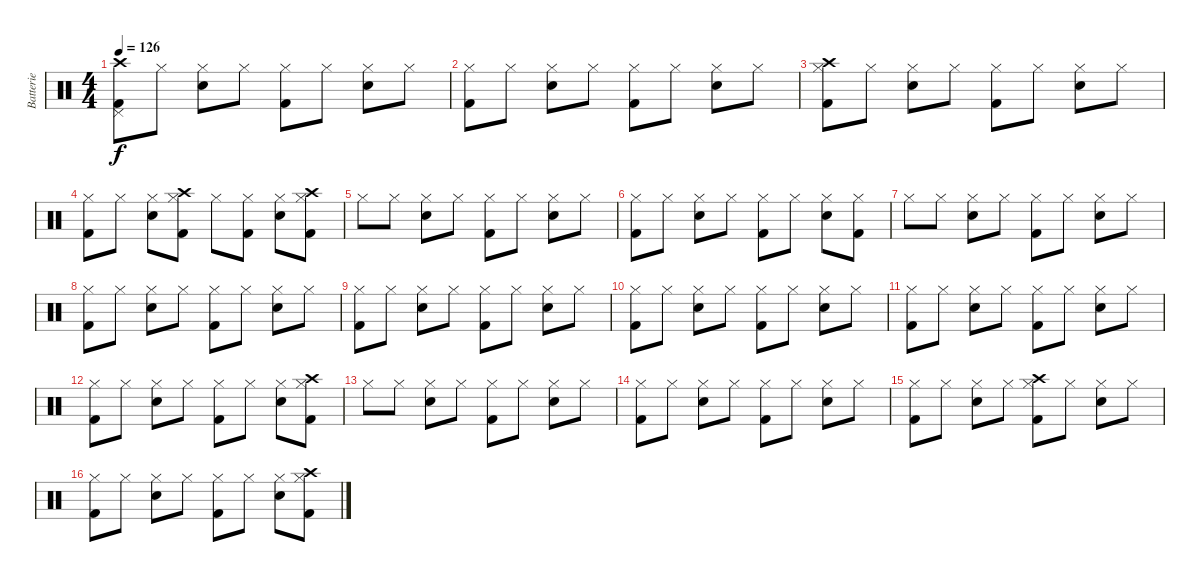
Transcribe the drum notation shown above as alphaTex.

\track ("Batterie" "Batterie") {instrument percussion}
\staff {score}
\articulation defaults
\ts (4 4)
\tempo 126
\clef neutral
\ks c
("Pedal Hi-Hat (hit)" "Crash high (hit)" "Kick (hit) 2").8{dy f} "Hi-Hat (closed)".8 ("Hi-Hat (closed)" "Snare (hit) 2").8 "Hi-Hat (closed)".8 ("Hi-Hat (closed)" "Kick (hit) 2").8 "Hi-Hat (closed)".8 ("Hi-Hat (closed)" "Snare (hit) 2").8 "Hi-Hat (closed)".8 |
("Hi-Hat (closed)" "Kick (hit) 2").8 "Hi-Hat (closed)".8 ("Hi-Hat (closed)" "Snare (hit) 2").8 "Hi-Hat (closed)".8 ("Hi-Hat (closed)" "Kick (hit) 2").8 "Hi-Hat (closed)".8 ("Hi-Hat (closed)" "Snare (hit) 2").8 "Hi-Hat (closed)".8 |
("Hi-Hat (closed)" "Crash high (hit)" "Kick (hit) 2").8 "Hi-Hat (closed)".8 ("Hi-Hat (closed)" "Snare (hit) 2").8 "Hi-Hat (closed)".8 ("Hi-Hat (closed)" "Kick (hit) 2").8 "Hi-Hat (closed)".8 ("Hi-Hat (closed)" "Snare (hit) 2").8 "Hi-Hat (closed)".8 |
("Hi-Hat (closed)" "Kick (hit) 2").8 "Hi-Hat (closed)".8 ("Hi-Hat (closed)" "Snare (hit) 2").8 ("Hi-Hat (closed)" "Crash high (hit)" "Kick (hit) 2").8 "Hi-Hat (closed)".8 ("Hi-Hat (closed)" "Kick (hit) 2").8 ("Hi-Hat (closed)" "Snare (hit) 2").8 ("Hi-Hat (closed)" "Crash high (hit)" "Kick (hit) 2").8 |
"Hi-Hat (closed)".8 "Hi-Hat (closed)".8 ("Hi-Hat (closed)" "Snare (hit) 2").8 "Hi-Hat (closed)".8 ("Hi-Hat (closed)" "Kick (hit) 2").8 "Hi-Hat (closed)".8 ("Hi-Hat (closed)" "Snare (hit) 2").8 "Hi-Hat (closed)".8 |
("Hi-Hat (closed)" "Kick (hit) 2").8 "Hi-Hat (closed)".8 ("Hi-Hat (closed)" "Snare (hit) 2").8 "Hi-Hat (closed)".8 ("Hi-Hat (closed)" "Kick (hit) 2").8 "Hi-Hat (closed)".8 ("Hi-Hat (closed)" "Snare (hit) 2").8 ("Hi-Hat (closed)" "Kick (hit) 2").8 |
"Hi-Hat (closed)".8 "Hi-Hat (closed)".8 ("Hi-Hat (closed)" "Snare (hit) 2").8 "Hi-Hat (closed)".8 ("Hi-Hat (closed)" "Kick (hit) 2").8 "Hi-Hat (closed)".8 ("Hi-Hat (closed)" "Snare (hit) 2").8 "Hi-Hat (closed)".8 |
("Hi-Hat (closed)" "Kick (hit) 2").8 "Hi-Hat (closed)".8 ("Hi-Hat (closed)" "Snare (hit) 2").8 "Hi-Hat (closed)".8 ("Hi-Hat (closed)" "Kick (hit) 2").8 "Hi-Hat (closed)".8 ("Hi-Hat (closed)" "Snare (hit) 2").8 "Hi-Hat (closed)".8 |
("Hi-Hat (closed)" "Kick (hit) 2").8 "Hi-Hat (closed)".8 ("Hi-Hat (closed)" "Snare (hit) 2").8 "Hi-Hat (closed)".8 ("Hi-Hat (closed)" "Kick (hit) 2").8 "Hi-Hat (closed)".8 ("Hi-Hat (closed)" "Snare (hit) 2").8 "Hi-Hat (closed)".8 |
("Hi-Hat (closed)" "Kick (hit) 2").8 "Hi-Hat (closed)".8 ("Hi-Hat (closed)" "Snare (hit) 2").8 "Hi-Hat (closed)".8 ("Hi-Hat (closed)" "Kick (hit) 2").8 "Hi-Hat (closed)".8 ("Hi-Hat (closed)" "Snare (hit) 2").8 "Hi-Hat (closed)".8 |
("Hi-Hat (closed)" "Kick (hit) 2").8 "Hi-Hat (closed)".8 ("Hi-Hat (closed)" "Snare (hit) 2").8 "Hi-Hat (closed)".8 ("Hi-Hat (closed)" "Kick (hit) 2").8 "Hi-Hat (closed)".8 ("Hi-Hat (closed)" "Snare (hit) 2").8 "Hi-Hat (closed)".8 |
("Hi-Hat (closed)" "Kick (hit) 2").8 "Hi-Hat (closed)".8 ("Hi-Hat (closed)" "Snare (hit) 2").8 "Hi-Hat (closed)".8 ("Hi-Hat (closed)" "Kick (hit) 2").8 "Hi-Hat (closed)".8 ("Hi-Hat (closed)" "Snare (hit) 2").8 ("Hi-Hat (closed)" "Crash high (hit)" "Kick (hit) 2").8 |
"Hi-Hat (closed)".8 "Hi-Hat (closed)".8 ("Hi-Hat (closed)" "Snare (hit) 2").8 "Hi-Hat (closed)".8 ("Hi-Hat (closed)" "Kick (hit) 2").8 "Hi-Hat (closed)".8 ("Hi-Hat (closed)" "Snare (hit) 2").8 "Hi-Hat (closed)".8 |
("Hi-Hat (closed)" "Kick (hit) 2").8 "Hi-Hat (closed)".8 ("Hi-Hat (closed)" "Snare (hit) 2").8 "Hi-Hat (closed)".8 ("Hi-Hat (closed)" "Kick (hit) 2").8 "Hi-Hat (closed)".8 ("Hi-Hat (closed)" "Snare (hit) 2").8 "Hi-Hat (closed)".8 |
("Hi-Hat (closed)" "Kick (hit) 2").8 "Hi-Hat (closed)".8 ("Hi-Hat (closed)" "Snare (hit) 2").8 "Hi-Hat (closed)".8 ("Hi-Hat (closed)" "Crash high (hit)" "Kick (hit) 2").8 "Hi-Hat (closed)".8 ("Hi-Hat (closed)" "Snare (hit) 2").8 "Hi-Hat (closed)".8 |
("Hi-Hat (closed)" "Kick (hit) 2").8 "Hi-Hat (closed)".8 ("Hi-Hat (closed)" "Snare (hit) 2").8 "Hi-Hat (closed)".8 ("Hi-Hat (closed)" "Kick (hit) 2").8 "Hi-Hat (closed)".8 ("Hi-Hat (closed)" "Snare (hit) 2").8 ("Hi-Hat (closed)" "Crash high (hit)" "Kick (hit) 2").8
